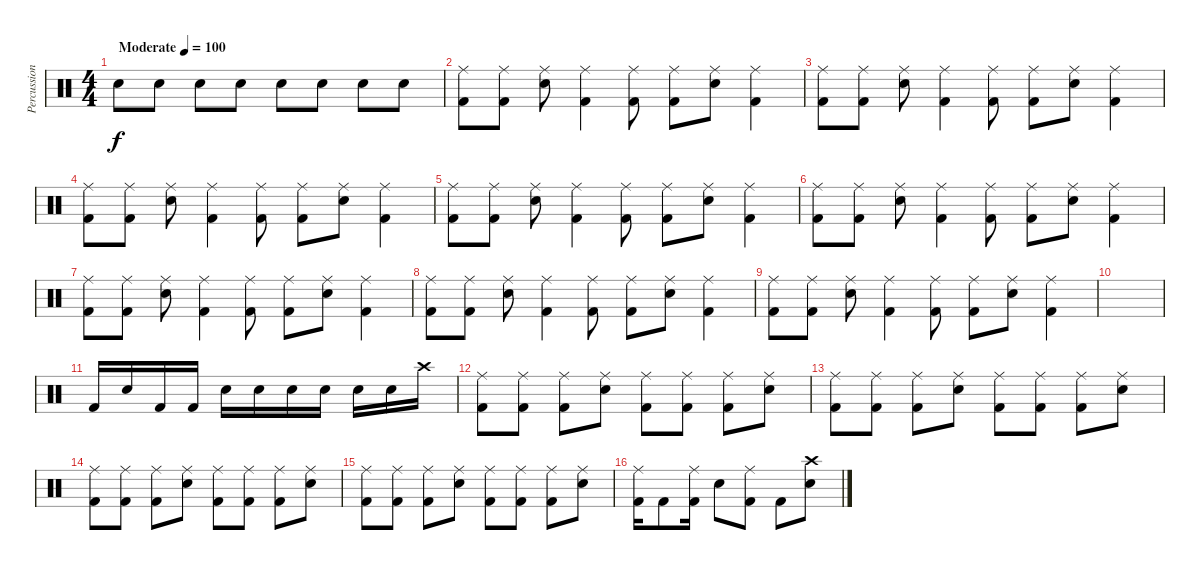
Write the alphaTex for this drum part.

\track ("Percussion" "Percussion") {instrument percussion}
\staff {score}
\articulation defaults
\ts (4 4)
\tempo (100 "Moderate")
\clef neutral
\ks c "Electric Snare (hit)".8{dy f} "Electric Snare (hit)".8 "Electric Snare (hit)".8 "Electric Snare (hit)".8 "Electric Snare (hit)".8 "Electric Snare (hit)".8 "Electric Snare (hit)".8 "Electric Snare (hit)".8
|
("Ride (middle)" "Kick (hit) 2").8 ("Ride (middle)" "Kick (hit) 2").8 ("Ride (middle)" "Electric Snare (hit)").8 ("Ride (middle)" "Kick (hit) 2").4 ("Ride (middle)" "Kick (hit) 2").8 ("Ride (middle)" "Kick (hit) 2").8 ("Ride (middle)" "Electric Snare (hit)").8 ("Ride (middle)" "Kick (hit) 2").4 |
("Ride (middle)" "Kick (hit) 2").8 ("Ride (middle)" "Kick (hit) 2").8 ("Ride (middle)" "Electric Snare (hit)").8 ("Ride (middle)" "Kick (hit) 2").4 ("Ride (middle)" "Kick (hit) 2").8 ("Ride (middle)" "Kick (hit) 2").8 ("Ride (middle)" "Electric Snare (hit)").8 ("Ride (middle)" "Kick (hit) 2").4 |
("Ride (middle)" "Kick (hit) 2").8 ("Ride (middle)" "Kick (hit) 2").8 ("Ride (middle)" "Electric Snare (hit)").8 ("Ride (middle)" "Kick (hit) 2").4 ("Ride (middle)" "Kick (hit) 2").8 ("Ride (middle)" "Kick (hit) 2").8 ("Ride (middle)" "Electric Snare (hit)").8 ("Ride (middle)" "Kick (hit) 2").4 |
("Ride (middle)" "Kick (hit) 2").8 ("Ride (middle)" "Kick (hit) 2").8 ("Ride (middle)" "Electric Snare (hit)").8 ("Ride (middle)" "Kick (hit) 2").4 ("Ride (middle)" "Kick (hit) 2").8 ("Ride (middle)" "Kick (hit) 2").8 ("Ride (middle)" "Electric Snare (hit)").8 ("Ride (middle)" "Kick (hit) 2").4 |
("Ride (middle)" "Kick (hit) 2").8 ("Ride (middle)" "Kick (hit) 2").8 ("Ride (middle)" "Electric Snare (hit)").8 ("Ride (middle)" "Kick (hit) 2").4 ("Ride (middle)" "Kick (hit) 2").8 ("Ride (middle)" "Kick (hit) 2").8 ("Ride (middle)" "Electric Snare (hit)").8 ("Ride (middle)" "Kick (hit) 2").4 |
("Ride (middle)" "Kick (hit) 2").8 ("Ride (middle)" "Kick (hit) 2").8 ("Ride (middle)" "Electric Snare (hit)").8 ("Ride (middle)" "Kick (hit) 2").4 ("Ride (middle)" "Kick (hit) 2").8 ("Ride (middle)" "Kick (hit) 2").8 ("Ride (middle)" "Electric Snare (hit)").8 ("Ride (middle)" "Kick (hit) 2").4 |
("Ride (middle)" "Kick (hit) 2").8 ("Ride (middle)" "Kick (hit) 2").8 ("Ride (middle)" "Electric Snare (hit)").8 ("Ride (middle)" "Kick (hit) 2").4 ("Ride (middle)" "Kick (hit) 2").8 ("Ride (middle)" "Kick (hit) 2").8 ("Ride (middle)" "Electric Snare (hit)").8 ("Ride (middle)" "Kick (hit) 2").4 |
("Ride (middle)" "Kick (hit) 2").8 ("Ride (middle)" "Kick (hit) 2").8 ("Ride (middle)" "Electric Snare (hit)").8 ("Ride (middle)" "Kick (hit) 2").4 ("Ride (middle)" "Kick (hit) 2").8 ("Ride (middle)" "Kick (hit) 2").8 ("Ride (middle)" "Electric Snare (hit)").8 ("Ride (middle)" "Kick (hit) 2").4 |
|
"Kick (hit) 2".16 "Electric Snare (hit)".16 "Kick (hit) 2".16 "Kick (hit) 2".16 "Electric Snare (hit)".16 "Electric Snare (hit)".16 "Electric Snare (hit)".16 "Electric Snare (hit)".16 "Electric Snare (hit)".16 "Electric Snare (hit)".16 "Crash high (hit)".16 |
("Ride (middle)" "Kick (hit) 2").8 ("Ride (middle)" "Kick (hit) 2").8 ("Ride (middle)" "Kick (hit) 2").8 ("Ride (middle)" "Electric Snare (hit)").8 ("Ride (middle)" "Kick (hit) 2").8 ("Ride (middle)" "Kick (hit) 2").8 ("Ride (middle)" "Kick (hit) 2").8 ("Ride (middle)" "Electric Snare (hit)").8 |
("Ride (middle)" "Kick (hit) 2").8 ("Ride (middle)" "Kick (hit) 2").8 ("Ride (middle)" "Kick (hit) 2").8 ("Ride (middle)" "Electric Snare (hit)").8 ("Ride (middle)" "Kick (hit) 2").8 ("Ride (middle)" "Kick (hit) 2").8 ("Ride (middle)" "Kick (hit) 2").8 ("Ride (middle)" "Electric Snare (hit)").8 |
("Ride (middle)" "Kick (hit) 2").8 ("Ride (middle)" "Kick (hit) 2").8 ("Ride (middle)" "Kick (hit) 2").8 ("Ride (middle)" "Electric Snare (hit)").8 ("Ride (middle)" "Kick (hit) 2").8 ("Ride (middle)" "Kick (hit) 2").8 ("Ride (middle)" "Kick (hit) 2").8 ("Ride (middle)" "Electric Snare (hit)").8 |
("Ride (middle)" "Kick (hit) 2").8 ("Ride (middle)" "Kick (hit) 2").8 ("Ride (middle)" "Kick (hit) 2").8 ("Ride (middle)" "Electric Snare (hit)").8 ("Ride (middle)" "Kick (hit) 2").8 ("Ride (middle)" "Kick (hit) 2").8 ("Ride (middle)" "Kick (hit) 2").8 ("Ride (middle)" "Electric Snare (hit)").8 |
("Ride (middle)" "Kick (hit) 2").16 "Kick (hit) 2".8 ("Ride (middle)" "Kick (hit) 2").16 "Electric Snare (hit)".8 ("Ride (middle)" "Kick (hit) 2").8 "Kick (hit) 2".8 ("Crash high (hit)" "Electric Snare (hit)").8
